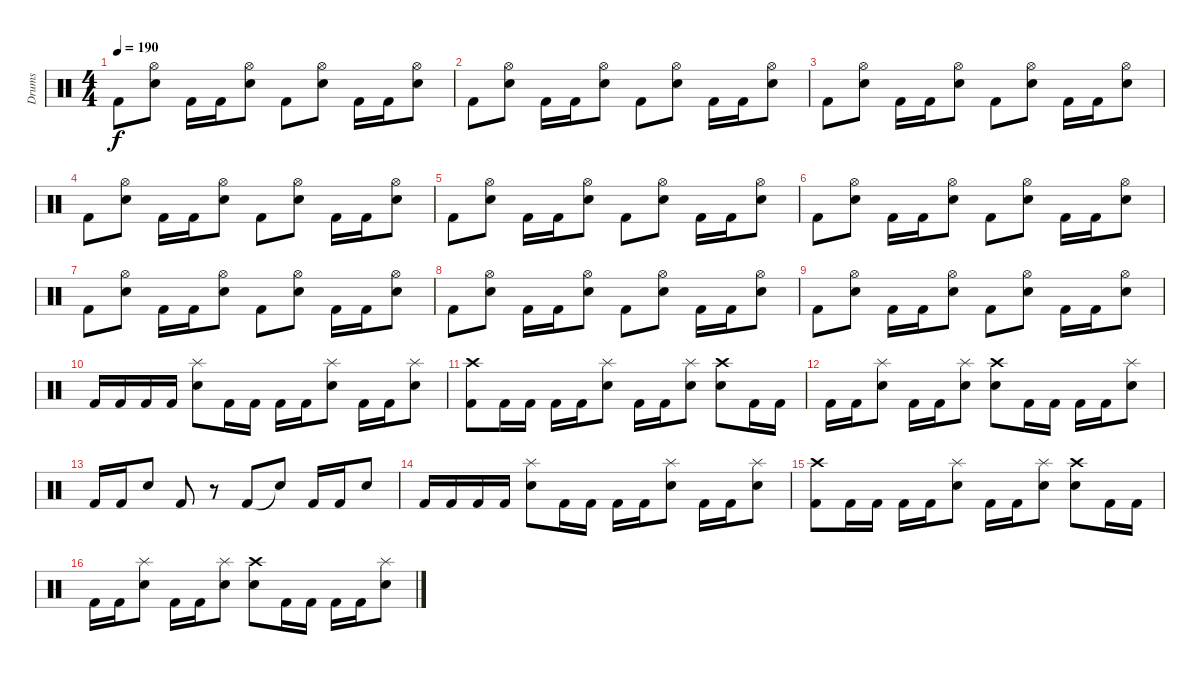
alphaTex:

\track ("Drums" "Drums") {instrument percussion}
\staff {score}
\articulation defaults
\ts (4 4)
\tempo 190
\clef neutral
\ks c "Kick (hit) 2".8{dy f}
("Hi-Hat (open)" "Snare (hit) 2").8 "Kick (hit) 2".16 "Kick (hit) 2".16 ("Hi-Hat (open)" "Snare (hit) 2").8 "Kick (hit) 2".8 ("Hi-Hat (open)" "Snare (hit) 2").8 "Kick (hit) 2".16 "Kick (hit) 2".16 ("Hi-Hat (open)" "Snare (hit) 2").8 |
"Kick (hit) 2".8 ("Hi-Hat (open)" "Snare (hit) 2").8 "Kick (hit) 2".16 "Kick (hit) 2".16 ("Hi-Hat (open)" "Snare (hit) 2").8 "Kick (hit) 2".8 ("Hi-Hat (open)" "Snare (hit) 2").8 "Kick (hit) 2".16 "Kick (hit) 2".16 ("Hi-Hat (open)" "Snare (hit) 2").8 |
"Kick (hit) 2".8 ("Hi-Hat (open)" "Snare (hit) 2").8 "Kick (hit) 2".16 "Kick (hit) 2".16 ("Hi-Hat (open)" "Snare (hit) 2").8 "Kick (hit) 2".8 ("Hi-Hat (open)" "Snare (hit) 2").8 "Kick (hit) 2".16 "Kick (hit) 2".16 ("Hi-Hat (open)" "Snare (hit) 2").8 |
"Kick (hit) 2".8 ("Hi-Hat (open)" "Snare (hit) 2").8 "Kick (hit) 2".16 "Kick (hit) 2".16 ("Hi-Hat (open)" "Snare (hit) 2").8 "Kick (hit) 2".8 ("Hi-Hat (open)" "Snare (hit) 2").8 "Kick (hit) 2".16 "Kick (hit) 2".16 ("Hi-Hat (open)" "Snare (hit) 2").8 |
"Kick (hit) 2".8 ("Hi-Hat (open)" "Snare (hit) 2").8 "Kick (hit) 2".16 "Kick (hit) 2".16 ("Hi-Hat (open)" "Snare (hit) 2").8 "Kick (hit) 2".8 ("Hi-Hat (open)" "Snare (hit) 2").8 "Kick (hit) 2".16 "Kick (hit) 2".16 ("Hi-Hat (open)" "Snare (hit) 2").8 |
"Kick (hit) 2".8 ("Hi-Hat (open)" "Snare (hit) 2").8 "Kick (hit) 2".16 "Kick (hit) 2".16 ("Hi-Hat (open)" "Snare (hit) 2").8 "Kick (hit) 2".8 ("Hi-Hat (open)" "Snare (hit) 2").8 "Kick (hit) 2".16 "Kick (hit) 2".16 ("Hi-Hat (open)" "Snare (hit) 2").8 |
"Kick (hit) 2".8 ("Hi-Hat (open)" "Snare (hit) 2").8 "Kick (hit) 2".16 "Kick (hit) 2".16 ("Hi-Hat (open)" "Snare (hit) 2").8 "Kick (hit) 2".8 ("Hi-Hat (open)" "Snare (hit) 2").8 "Kick (hit) 2".16 "Kick (hit) 2".16 ("Hi-Hat (open)" "Snare (hit) 2").8 |
"Kick (hit) 2".8 ("Hi-Hat (open)" "Snare (hit) 2").8 "Kick (hit) 2".16 "Kick (hit) 2".16 ("Hi-Hat (open)" "Snare (hit) 2").8 "Kick (hit) 2".8 ("Hi-Hat (open)" "Snare (hit) 2").8 "Kick (hit) 2".16 "Kick (hit) 2".16 ("Hi-Hat (open)" "Snare (hit) 2").8 |
"Kick (hit) 2".8 ("Hi-Hat (open)" "Snare (hit) 2").8 "Kick (hit) 2".16 "Kick (hit) 2".16 ("Hi-Hat (open)" "Snare (hit) 2").8 "Kick (hit) 2".8 ("Hi-Hat (open)" "Snare (hit) 2").8 "Kick (hit) 2".16 "Kick (hit) 2".16 ("Hi-Hat (open)" "Snare (hit) 2").8 |
"Kick (hit) 2".16 "Kick (hit) 2".16 "Kick (hit) 2".16 "Kick (hit) 2".16 ("Splash (hit)" "Snare (hit) 2").8 "Kick (hit) 2".16 "Kick (hit) 2".16 "Kick (hit) 2".16 "Kick (hit) 2".16 ("Splash (hit)" "Snare (hit) 2").8 "Kick (hit) 2".16 "Kick (hit) 2".16 ("Splash (hit)" "Snare (hit) 2").8 |
("Crash high (hit)" "Kick (hit) 2").8 "Kick (hit) 2".16 "Kick (hit) 2".16 "Kick (hit) 2".16 "Kick (hit) 2".16 ("Splash (hit)" "Snare (hit) 2").8 "Kick (hit) 2".16 "Kick (hit) 2".16 ("Splash (hit)" "Snare (hit) 2").8 ("Crash high (hit)" "Snare (hit) 2").8 "Kick (hit) 2".16 "Kick (hit) 2".16 |
"Kick (hit) 2".16 "Kick (hit) 2".16 ("Splash (hit)" "Snare (hit) 2").8 "Kick (hit) 2".16 "Kick (hit) 2".16 ("Splash (hit)" "Snare (hit) 2").8 ("Crash high (hit)" "Snare (hit) 2").8 "Kick (hit) 2".16 "Kick (hit) 2".16 "Kick (hit) 2".16 "Kick (hit) 2".16 ("Splash (hit)" "Snare (hit) 2").8 |
"Kick (hit) 2".16 "Kick (hit) 2".16 "Snare (hit) 2".8 "Kick (hit) 2".8 r.8 "Kick (hit) 2".8 "Snare (hit)"{t}.8 "Kick (hit) 2".16 "Kick (hit) 2".16 "Snare (hit) 2".8 |
"Kick (hit) 2".16 "Kick (hit) 2".16 "Kick (hit) 2".16 "Kick (hit) 2".16 ("Splash (hit)" "Snare (hit) 2").8 "Kick (hit) 2".16 "Kick (hit) 2".16 "Kick (hit) 2".16 "Kick (hit) 2".16 ("Splash (hit)" "Snare (hit) 2").8 "Kick (hit) 2".16 "Kick (hit) 2".16 ("Splash (hit)" "Snare (hit) 2").8 |
("Crash high (hit)" "Kick (hit) 2").8 "Kick (hit) 2".16 "Kick (hit) 2".16 "Kick (hit) 2".16 "Kick (hit) 2".16 ("Splash (hit)" "Snare (hit) 2").8 "Kick (hit) 2".16 "Kick (hit) 2".16 ("Splash (hit)" "Snare (hit) 2").8 ("Crash high (hit)" "Snare (hit) 2").8 "Kick (hit) 2".16 "Kick (hit) 2".16 |
"Kick (hit) 2".16 "Kick (hit) 2".16 ("Splash (hit)" "Snare (hit) 2").8 "Kick (hit) 2".16 "Kick (hit) 2".16 ("Splash (hit)" "Snare (hit) 2").8 ("Crash high (hit)" "Snare (hit) 2").8 "Kick (hit) 2".16 "Kick (hit) 2".16 "Kick (hit) 2".16 "Kick (hit) 2".16 ("Splash (hit)" "Snare (hit) 2").8
